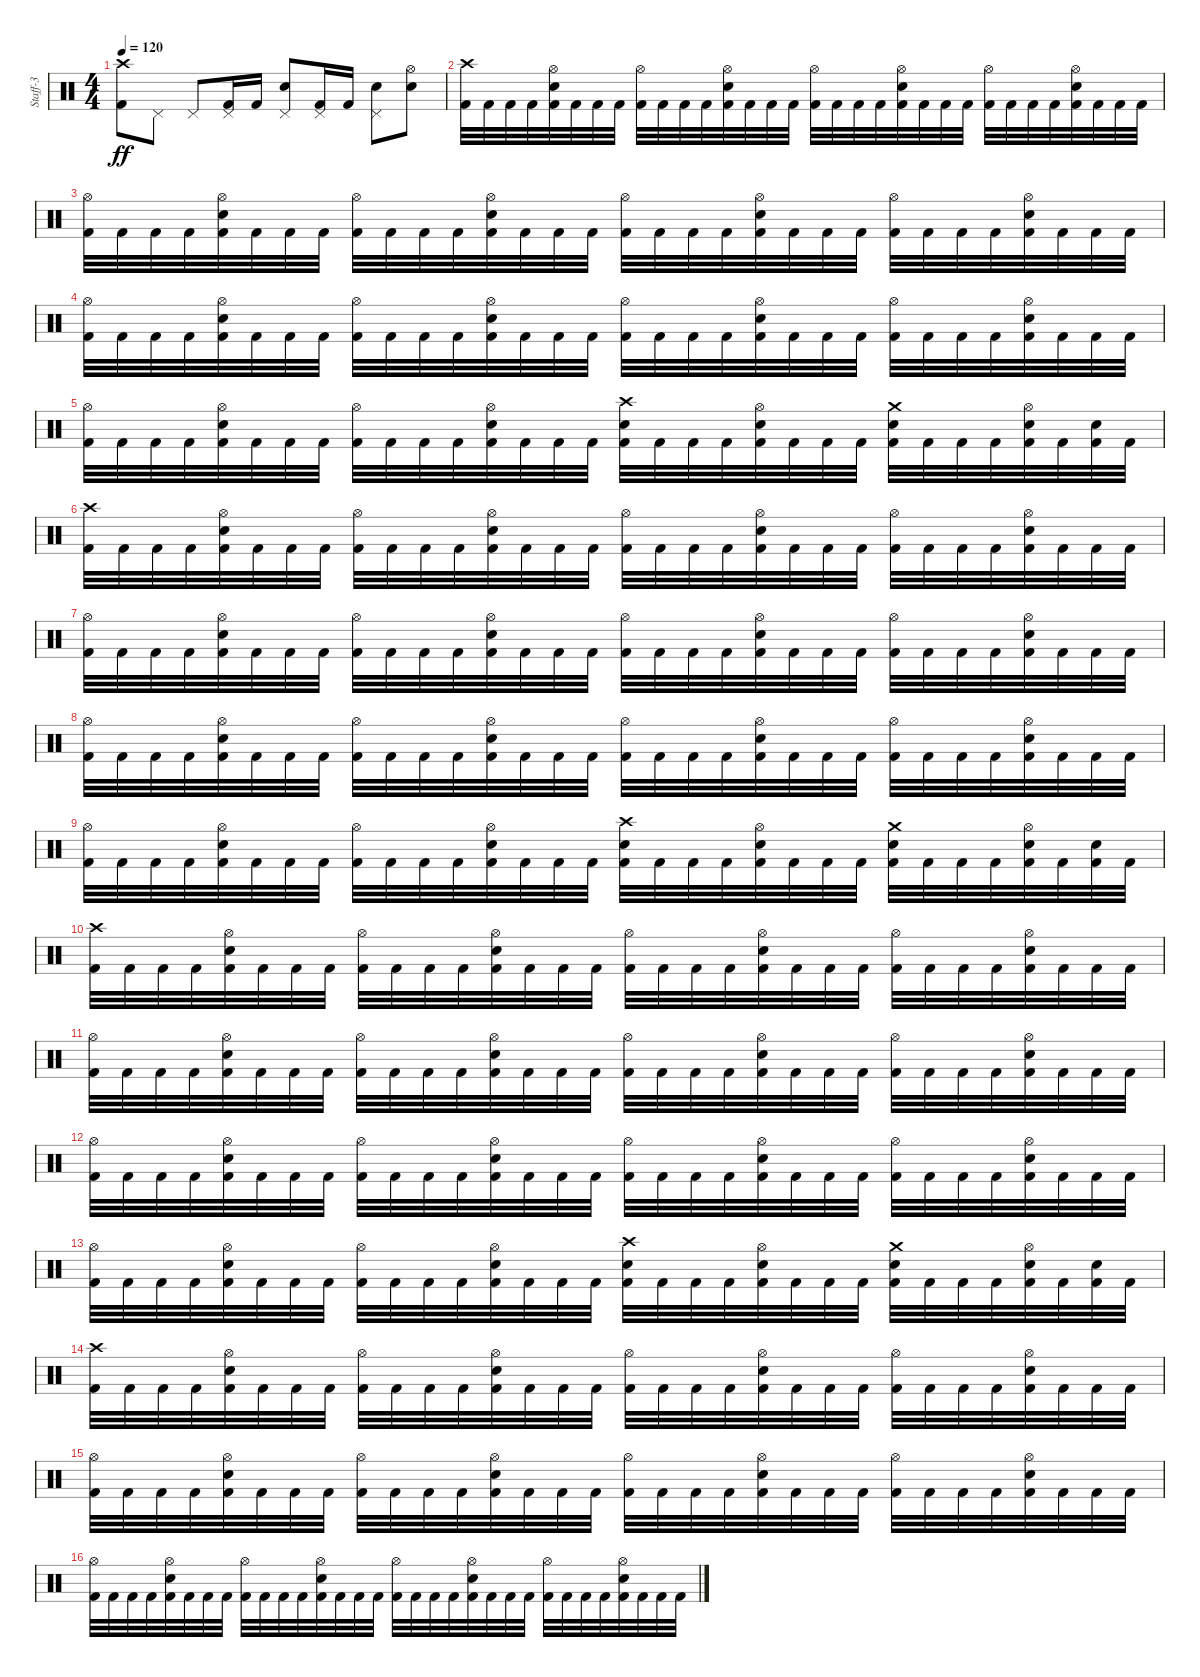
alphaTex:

\track ("Staff-3" "Staff-3") {instrument percussion}
\staff {score}
\articulation defaults
\ts (4 4)
\tempo 120
\clef neutral
\ks c
("Kick (hit) 2" "Crash high (hit)").8{dy ff} "Pedal Hi-Hat (hit)".8 "Pedal Hi-Hat (hit)".8 ("Kick (hit) 2" "Pedal Hi-Hat (hit)").16 "Kick (hit) 2".16 ("Snare (hit) 2" "Pedal Hi-Hat (hit)").8 ("Kick (hit) 2" "Pedal Hi-Hat (hit)").16 "Kick (hit) 2".16 ("Snare (hit) 2" "Pedal Hi-Hat (hit)").8 ("Electric Snare (hit)" "Hi-Hat (open)").8 |
("Kick (hit) 2" "Crash high (hit)").32 "Kick (hit) 2".32 "Kick (hit) 2".32 "Kick (hit) 2".32 ("Kick (hit) 2" "Snare (hit) 2" "Hi-Hat (open)").32 "Kick (hit) 2".32 "Kick (hit) 2".32 "Kick (hit) 2".32 ("Kick (hit) 2" "Hi-Hat (open)").32 "Kick (hit) 2".32 "Kick (hit) 2".32 "Kick (hit) 2".32 ("Kick (hit) 2" "Snare (hit) 2" "Hi-Hat (open)").32 "Kick (hit) 2".32 "Kick (hit) 2".32 "Kick (hit) 2".32 ("Kick (hit) 2" "Hi-Hat (open)").32 "Kick (hit) 2".32 "Kick (hit) 2".32 "Kick (hit) 2".32 ("Kick (hit) 2" "Snare (hit) 2" "Hi-Hat (open)").32 "Kick (hit) 2".32 "Kick (hit) 2".32 "Kick (hit) 2".32 ("Kick (hit) 2" "Hi-Hat (open)").32 "Kick (hit) 2".32 "Kick (hit) 2".32 "Kick (hit) 2".32 ("Kick (hit) 2" "Snare (hit) 2" "Hi-Hat (open)").32 "Kick (hit) 2".32 "Kick (hit) 2".32 "Kick (hit) 2".32 |
("Kick (hit) 2" "Hi-Hat (open)").32 "Kick (hit) 2".32 "Kick (hit) 2".32 "Kick (hit) 2".32 ("Kick (hit) 2" "Snare (hit) 2" "Hi-Hat (open)").32 "Kick (hit) 2".32 "Kick (hit) 2".32 "Kick (hit) 2".32 ("Kick (hit) 2" "Hi-Hat (open)").32 "Kick (hit) 2".32 "Kick (hit) 2".32 "Kick (hit) 2".32 ("Kick (hit) 2" "Snare (hit) 2" "Hi-Hat (open)").32 "Kick (hit) 2".32 "Kick (hit) 2".32 "Kick (hit) 2".32 ("Kick (hit) 2" "Hi-Hat (open)").32 "Kick (hit) 2".32 "Kick (hit) 2".32 "Kick (hit) 2".32 ("Kick (hit) 2" "Snare (hit) 2" "Hi-Hat (open)").32 "Kick (hit) 2".32 "Kick (hit) 2".32 "Kick (hit) 2".32 ("Kick (hit) 2" "Hi-Hat (open)").32 "Kick (hit) 2".32 "Kick (hit) 2".32 "Kick (hit) 2".32 ("Kick (hit) 2" "Snare (hit) 2" "Hi-Hat (open)").32 "Kick (hit) 2".32 "Kick (hit) 2".32 "Kick (hit) 2".32 |
("Kick (hit) 2" "Hi-Hat (open)").32 "Kick (hit) 2".32 "Kick (hit) 2".32 "Kick (hit) 2".32 ("Kick (hit) 2" "Snare (hit) 2" "Hi-Hat (open)").32 "Kick (hit) 2".32 "Kick (hit) 2".32 "Kick (hit) 2".32 ("Kick (hit) 2" "Hi-Hat (open)").32 "Kick (hit) 2".32 "Kick (hit) 2".32 "Kick (hit) 2".32 ("Kick (hit) 2" "Snare (hit) 2" "Hi-Hat (open)").32 "Kick (hit) 2".32 "Kick (hit) 2".32 "Kick (hit) 2".32 ("Kick (hit) 2" "Hi-Hat (open)").32 "Kick (hit) 2".32 "Kick (hit) 2".32 "Kick (hit) 2".32 ("Kick (hit) 2" "Snare (hit) 2" "Hi-Hat (open)").32 "Kick (hit) 2".32 "Kick (hit) 2".32 "Kick (hit) 2".32 ("Kick (hit) 2" "Hi-Hat (open)").32 "Kick (hit) 2".32 "Kick (hit) 2".32 "Kick (hit) 2".32 ("Kick (hit) 2" "Snare (hit) 2" "Hi-Hat (open)").32 "Kick (hit) 2".32 "Kick (hit) 2".32 "Kick (hit) 2".32 |
("Kick (hit) 2" "Hi-Hat (open)").32 "Kick (hit) 2".32 "Kick (hit) 2".32 "Kick (hit) 2".32 ("Kick (hit) 2" "Snare (hit) 2" "Hi-Hat (open)").32 "Kick (hit) 2".32 "Kick (hit) 2".32 "Kick (hit) 2".32 ("Kick (hit) 2" "Hi-Hat (open)").32 "Kick (hit) 2".32 "Kick (hit) 2".32 "Kick (hit) 2".32 ("Kick (hit) 2" "Snare (hit) 2" "Hi-Hat (open)").32 "Kick (hit) 2".32 "Kick (hit) 2".32 "Kick (hit) 2".32 ("Kick (hit) 2" "Snare (hit) 2" "Crash high (hit)").32 "Kick (hit) 2".32 "Kick (hit) 2".32 "Kick (hit) 2".32 ("Kick (hit) 2" "Snare (hit) 2" "Hi-Hat (open)").32 "Kick (hit) 2".32 "Kick (hit) 2".32 "Kick (hit) 2".32 ("Kick (hit) 2" "Snare (hit) 2" "Crash medium (hit)").32 "Kick (hit) 2".32 "Kick (hit) 2".32 "Kick (hit) 2".32 ("Kick (hit) 2" "Snare (hit) 2" "Hi-Hat (open)").32 "Kick (hit) 2".32 ("Kick (hit) 2" "Snare (hit) 2").32 "Kick (hit) 2".32 |
("Kick (hit) 2" "Crash high (hit)").32 "Kick (hit) 2".32 "Kick (hit) 2".32 "Kick (hit) 2".32 ("Kick (hit) 2" "Snare (hit) 2" "Hi-Hat (open)").32 "Kick (hit) 2".32 "Kick (hit) 2".32 "Kick (hit) 2".32 ("Kick (hit) 2" "Hi-Hat (open)").32 "Kick (hit) 2".32 "Kick (hit) 2".32 "Kick (hit) 2".32 ("Kick (hit) 2" "Snare (hit) 2" "Hi-Hat (open)").32 "Kick (hit) 2".32 "Kick (hit) 2".32 "Kick (hit) 2".32 ("Kick (hit) 2" "Hi-Hat (open)").32 "Kick (hit) 2".32 "Kick (hit) 2".32 "Kick (hit) 2".32 ("Kick (hit) 2" "Snare (hit) 2" "Hi-Hat (open)").32 "Kick (hit) 2".32 "Kick (hit) 2".32 "Kick (hit) 2".32 ("Kick (hit) 2" "Hi-Hat (open)").32 "Kick (hit) 2".32 "Kick (hit) 2".32 "Kick (hit) 2".32 ("Kick (hit) 2" "Snare (hit) 2" "Hi-Hat (open)").32 "Kick (hit) 2".32 "Kick (hit) 2".32 "Kick (hit) 2".32 |
("Kick (hit) 2" "Hi-Hat (open)").32 "Kick (hit) 2".32 "Kick (hit) 2".32 "Kick (hit) 2".32 ("Kick (hit) 2" "Snare (hit) 2" "Hi-Hat (open)").32 "Kick (hit) 2".32 "Kick (hit) 2".32 "Kick (hit) 2".32 ("Kick (hit) 2" "Hi-Hat (open)").32 "Kick (hit) 2".32 "Kick (hit) 2".32 "Kick (hit) 2".32 ("Kick (hit) 2" "Snare (hit) 2" "Hi-Hat (open)").32 "Kick (hit) 2".32 "Kick (hit) 2".32 "Kick (hit) 2".32 ("Kick (hit) 2" "Hi-Hat (open)").32 "Kick (hit) 2".32 "Kick (hit) 2".32 "Kick (hit) 2".32 ("Kick (hit) 2" "Snare (hit) 2" "Hi-Hat (open)").32 "Kick (hit) 2".32 "Kick (hit) 2".32 "Kick (hit) 2".32 ("Kick (hit) 2" "Hi-Hat (open)").32 "Kick (hit) 2".32 "Kick (hit) 2".32 "Kick (hit) 2".32 ("Kick (hit) 2" "Snare (hit) 2" "Hi-Hat (open)").32 "Kick (hit) 2".32 "Kick (hit) 2".32 "Kick (hit) 2".32 |
("Kick (hit) 2" "Hi-Hat (open)").32 "Kick (hit) 2".32 "Kick (hit) 2".32 "Kick (hit) 2".32 ("Kick (hit) 2" "Snare (hit) 2" "Hi-Hat (open)").32 "Kick (hit) 2".32 "Kick (hit) 2".32 "Kick (hit) 2".32 ("Kick (hit) 2" "Hi-Hat (open)").32 "Kick (hit) 2".32 "Kick (hit) 2".32 "Kick (hit) 2".32 ("Kick (hit) 2" "Snare (hit) 2" "Hi-Hat (open)").32 "Kick (hit) 2".32 "Kick (hit) 2".32 "Kick (hit) 2".32 ("Kick (hit) 2" "Hi-Hat (open)").32 "Kick (hit) 2".32 "Kick (hit) 2".32 "Kick (hit) 2".32 ("Kick (hit) 2" "Snare (hit) 2" "Hi-Hat (open)").32 "Kick (hit) 2".32 "Kick (hit) 2".32 "Kick (hit) 2".32 ("Kick (hit) 2" "Hi-Hat (open)").32 "Kick (hit) 2".32 "Kick (hit) 2".32 "Kick (hit) 2".32 ("Kick (hit) 2" "Snare (hit) 2" "Hi-Hat (open)").32 "Kick (hit) 2".32 "Kick (hit) 2".32 "Kick (hit) 2".32 |
("Kick (hit) 2" "Hi-Hat (open)").32 "Kick (hit) 2".32 "Kick (hit) 2".32 "Kick (hit) 2".32 ("Kick (hit) 2" "Snare (hit) 2" "Hi-Hat (open)").32 "Kick (hit) 2".32 "Kick (hit) 2".32 "Kick (hit) 2".32 ("Kick (hit) 2" "Hi-Hat (open)").32 "Kick (hit) 2".32 "Kick (hit) 2".32 "Kick (hit) 2".32 ("Kick (hit) 2" "Snare (hit) 2" "Hi-Hat (open)").32 "Kick (hit) 2".32 "Kick (hit) 2".32 "Kick (hit) 2".32 ("Kick (hit) 2" "Snare (hit) 2" "Crash high (hit)").32 "Kick (hit) 2".32 "Kick (hit) 2".32 "Kick (hit) 2".32 ("Kick (hit) 2" "Snare (hit) 2" "Hi-Hat (open)").32 "Kick (hit) 2".32 "Kick (hit) 2".32 "Kick (hit) 2".32 ("Kick (hit) 2" "Snare (hit) 2" "Crash medium (hit)").32 "Kick (hit) 2".32 "Kick (hit) 2".32 "Kick (hit) 2".32 ("Kick (hit) 2" "Snare (hit) 2" "Hi-Hat (open)").32 "Kick (hit) 2".32 ("Kick (hit) 2" "Snare (hit) 2").32 "Kick (hit) 2".32 |
("Kick (hit) 2" "Crash high (hit)").32 "Kick (hit) 2".32 "Kick (hit) 2".32 "Kick (hit) 2".32 ("Kick (hit) 2" "Snare (hit) 2" "Hi-Hat (open)").32 "Kick (hit) 2".32 "Kick (hit) 2".32 "Kick (hit) 2".32 ("Kick (hit) 2" "Hi-Hat (open)").32 "Kick (hit) 2".32 "Kick (hit) 2".32 "Kick (hit) 2".32 ("Kick (hit) 2" "Snare (hit) 2" "Hi-Hat (open)").32 "Kick (hit) 2".32 "Kick (hit) 2".32 "Kick (hit) 2".32 ("Kick (hit) 2" "Hi-Hat (open)").32 "Kick (hit) 2".32 "Kick (hit) 2".32 "Kick (hit) 2".32 ("Kick (hit) 2" "Snare (hit) 2" "Hi-Hat (open)").32 "Kick (hit) 2".32 "Kick (hit) 2".32 "Kick (hit) 2".32 ("Kick (hit) 2" "Hi-Hat (open)").32 "Kick (hit) 2".32 "Kick (hit) 2".32 "Kick (hit) 2".32 ("Kick (hit) 2" "Snare (hit) 2" "Hi-Hat (open)").32 "Kick (hit) 2".32 "Kick (hit) 2".32 "Kick (hit) 2".32 |
("Kick (hit) 2" "Hi-Hat (open)").32 "Kick (hit) 2".32 "Kick (hit) 2".32 "Kick (hit) 2".32 ("Kick (hit) 2" "Snare (hit) 2" "Hi-Hat (open)").32 "Kick (hit) 2".32 "Kick (hit) 2".32 "Kick (hit) 2".32 ("Kick (hit) 2" "Hi-Hat (open)").32 "Kick (hit) 2".32 "Kick (hit) 2".32 "Kick (hit) 2".32 ("Kick (hit) 2" "Snare (hit) 2" "Hi-Hat (open)").32 "Kick (hit) 2".32 "Kick (hit) 2".32 "Kick (hit) 2".32 ("Kick (hit) 2" "Hi-Hat (open)").32 "Kick (hit) 2".32 "Kick (hit) 2".32 "Kick (hit) 2".32 ("Kick (hit) 2" "Snare (hit) 2" "Hi-Hat (open)").32 "Kick (hit) 2".32 "Kick (hit) 2".32 "Kick (hit) 2".32 ("Kick (hit) 2" "Hi-Hat (open)").32 "Kick (hit) 2".32 "Kick (hit) 2".32 "Kick (hit) 2".32 ("Kick (hit) 2" "Snare (hit) 2" "Hi-Hat (open)").32 "Kick (hit) 2".32 "Kick (hit) 2".32 "Kick (hit) 2".32 |
("Kick (hit) 2" "Hi-Hat (open)").32 "Kick (hit) 2".32 "Kick (hit) 2".32 "Kick (hit) 2".32 ("Kick (hit) 2" "Snare (hit) 2" "Hi-Hat (open)").32 "Kick (hit) 2".32 "Kick (hit) 2".32 "Kick (hit) 2".32 ("Kick (hit) 2" "Hi-Hat (open)").32 "Kick (hit) 2".32 "Kick (hit) 2".32 "Kick (hit) 2".32 ("Kick (hit) 2" "Snare (hit) 2" "Hi-Hat (open)").32 "Kick (hit) 2".32 "Kick (hit) 2".32 "Kick (hit) 2".32 ("Kick (hit) 2" "Hi-Hat (open)").32 "Kick (hit) 2".32 "Kick (hit) 2".32 "Kick (hit) 2".32 ("Kick (hit) 2" "Snare (hit) 2" "Hi-Hat (open)").32 "Kick (hit) 2".32 "Kick (hit) 2".32 "Kick (hit) 2".32 ("Kick (hit) 2" "Hi-Hat (open)").32 "Kick (hit) 2".32 "Kick (hit) 2".32 "Kick (hit) 2".32 ("Kick (hit) 2" "Snare (hit) 2" "Hi-Hat (open)").32 "Kick (hit) 2".32 "Kick (hit) 2".32 "Kick (hit) 2".32 |
("Kick (hit) 2" "Hi-Hat (open)").32 "Kick (hit) 2".32 "Kick (hit) 2".32 "Kick (hit) 2".32 ("Kick (hit) 2" "Snare (hit) 2" "Hi-Hat (open)").32 "Kick (hit) 2".32 "Kick (hit) 2".32 "Kick (hit) 2".32 ("Kick (hit) 2" "Hi-Hat (open)").32 "Kick (hit) 2".32 "Kick (hit) 2".32 "Kick (hit) 2".32 ("Kick (hit) 2" "Snare (hit) 2" "Hi-Hat (open)").32 "Kick (hit) 2".32 "Kick (hit) 2".32 "Kick (hit) 2".32 ("Kick (hit) 2" "Snare (hit) 2" "Crash high (hit)").32 "Kick (hit) 2".32 "Kick (hit) 2".32 "Kick (hit) 2".32 ("Kick (hit) 2" "Snare (hit) 2" "Hi-Hat (open)").32 "Kick (hit) 2".32 "Kick (hit) 2".32 "Kick (hit) 2".32 ("Kick (hit) 2" "Snare (hit) 2" "Crash medium (hit)").32 "Kick (hit) 2".32 "Kick (hit) 2".32 "Kick (hit) 2".32 ("Kick (hit) 2" "Snare (hit) 2" "Hi-Hat (open)").32 "Kick (hit) 2".32 ("Kick (hit) 2" "Snare (hit) 2").32 "Kick (hit) 2".32 |
("Kick (hit) 2" "Crash high (hit)").32 "Kick (hit) 2".32 "Kick (hit) 2".32 "Kick (hit) 2".32 ("Kick (hit) 2" "Snare (hit) 2" "Hi-Hat (open)").32 "Kick (hit) 2".32 "Kick (hit) 2".32 "Kick (hit) 2".32 ("Kick (hit) 2" "Hi-Hat (open)").32 "Kick (hit) 2".32 "Kick (hit) 2".32 "Kick (hit) 2".32 ("Kick (hit) 2" "Snare (hit) 2" "Hi-Hat (open)").32 "Kick (hit) 2".32 "Kick (hit) 2".32 "Kick (hit) 2".32 ("Kick (hit) 2" "Hi-Hat (open)").32 "Kick (hit) 2".32 "Kick (hit) 2".32 "Kick (hit) 2".32 ("Kick (hit) 2" "Snare (hit) 2" "Hi-Hat (open)").32 "Kick (hit) 2".32 "Kick (hit) 2".32 "Kick (hit) 2".32 ("Kick (hit) 2" "Hi-Hat (open)").32 "Kick (hit) 2".32 "Kick (hit) 2".32 "Kick (hit) 2".32 ("Kick (hit) 2" "Snare (hit) 2" "Hi-Hat (open)").32 "Kick (hit) 2".32 "Kick (hit) 2".32 "Kick (hit) 2".32 |
("Kick (hit) 2" "Hi-Hat (open)").32 "Kick (hit) 2".32 "Kick (hit) 2".32 "Kick (hit) 2".32 ("Kick (hit) 2" "Snare (hit) 2" "Hi-Hat (open)").32 "Kick (hit) 2".32 "Kick (hit) 2".32 "Kick (hit) 2".32 ("Kick (hit) 2" "Hi-Hat (open)").32 "Kick (hit) 2".32 "Kick (hit) 2".32 "Kick (hit) 2".32 ("Kick (hit) 2" "Snare (hit) 2" "Hi-Hat (open)").32 "Kick (hit) 2".32 "Kick (hit) 2".32 "Kick (hit) 2".32 ("Kick (hit) 2" "Hi-Hat (open)").32 "Kick (hit) 2".32 "Kick (hit) 2".32 "Kick (hit) 2".32 ("Kick (hit) 2" "Snare (hit) 2" "Hi-Hat (open)").32 "Kick (hit) 2".32 "Kick (hit) 2".32 "Kick (hit) 2".32 ("Kick (hit) 2" "Hi-Hat (open)").32 "Kick (hit) 2".32 "Kick (hit) 2".32 "Kick (hit) 2".32 ("Kick (hit) 2" "Snare (hit) 2" "Hi-Hat (open)").32 "Kick (hit) 2".32 "Kick (hit) 2".32 "Kick (hit) 2".32 |
("Kick (hit) 2" "Hi-Hat (open)").32 "Kick (hit) 2".32 "Kick (hit) 2".32 "Kick (hit) 2".32 ("Kick (hit) 2" "Snare (hit) 2" "Hi-Hat (open)").32 "Kick (hit) 2".32 "Kick (hit) 2".32 "Kick (hit) 2".32 ("Kick (hit) 2" "Hi-Hat (open)").32 "Kick (hit) 2".32 "Kick (hit) 2".32 "Kick (hit) 2".32 ("Kick (hit) 2" "Snare (hit) 2" "Hi-Hat (open)").32 "Kick (hit) 2".32 "Kick (hit) 2".32 "Kick (hit) 2".32 ("Kick (hit) 2" "Hi-Hat (open)").32 "Kick (hit) 2".32 "Kick (hit) 2".32 "Kick (hit) 2".32 ("Kick (hit) 2" "Snare (hit) 2" "Hi-Hat (open)").32 "Kick (hit) 2".32 "Kick (hit) 2".32 "Kick (hit) 2".32 ("Kick (hit) 2" "Hi-Hat (open)").32 "Kick (hit) 2".32 "Kick (hit) 2".32 "Kick (hit) 2".32 ("Kick (hit) 2" "Snare (hit) 2" "Hi-Hat (open)").32 "Kick (hit) 2".32 "Kick (hit) 2".32 "Kick (hit) 2".32
